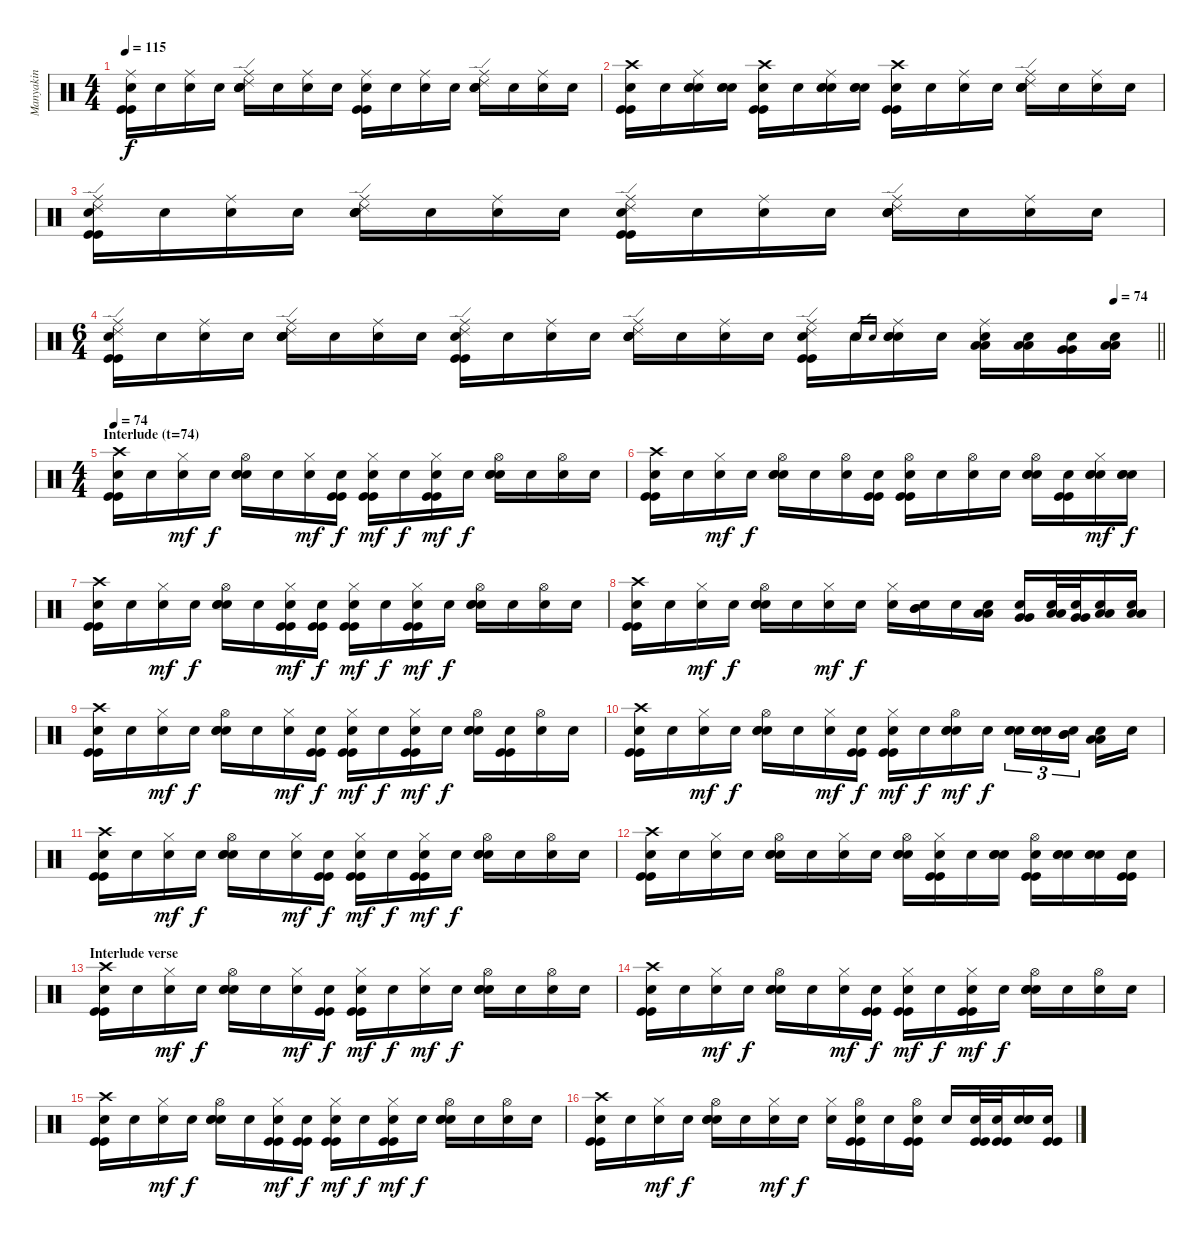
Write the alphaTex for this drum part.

\track ("Manyakin" "Manyakin") {instrument percussion}
\staff {score}
\articulation defaults
\ts (4 4)
\tempo 115
\clef neutral
\ks c
("Ride (middle)" "Kick (hit)" "Kick (hit)" "Snare (hit)"{x}).16{dy f} "Snare (hit)"{x}.16 ("Ride (middle)" "Snare (hit)"{x}).16 "Snare (hit)"{x}.16 ("Ride (middle)" "Ride (edge) 2" "Electric Snare (hit)" "Electric Snare (hit)" "Snare (hit)"{x}).16 "Snare (hit)"{x}.16 ("Ride (middle)" "Snare (hit)"{x}).16 "Snare (hit)"{x}.16 ("Ride (middle)" "Kick (hit)" "Kick (hit)" "Snare (hit)"{x}).16 "Snare (hit)"{x}.16 ("Ride (middle)" "Snare (hit)"{x}).16 "Snare (hit)"{x}.16 ("Ride (middle)" "Ride (edge) 2" "Electric Snare (hit)" "Electric Snare (hit)" "Snare (hit)"{x}).16 "Snare (hit)"{x}.16 ("Ride (middle)" "Snare (hit)"{x}).16 "Snare (hit)"{x}.16 |
("Crash high (hit)" "Kick (hit)" "Kick (hit)" "Snare (hit)"{x}).16 "Snare (hit)"{x}.16 ("Ride (middle)" "Electric Snare (hit)" "Electric Snare (hit)" "Snare (hit)"{x}).16 ("Electric Snare (hit)" "Electric Snare (hit)" "Snare (hit)"{x}).16 ("Crash high (hit)" "Kick (hit)" "Kick (hit)" "Snare (hit)"{x}).16 "Snare (hit)"{x}.16 ("Ride (middle)" "Electric Snare (hit)" "Electric Snare (hit)" "Snare (hit)"{x}).16 ("Electric Snare (hit)" "Electric Snare (hit)" "Snare (hit)"{x}).16 ("Crash high (hit)" "Kick (hit)" "Kick (hit)" "Snare (hit)"{x}).16 "Snare (hit)"{x}.16 ("Ride (middle)" "Snare (hit)"{x}).16 "Snare (hit)"{x}.16 ("Ride (middle)" "Ride (edge) 2" "Electric Snare (hit)" "Electric Snare (hit)" "Snare (hit)"{x}).16 "Snare (hit)"{x}.16 ("Ride (middle)" "Snare (hit)"{x}).16 "Snare (hit)"{x}.16 |
("Ride (middle)" "Ride (edge) 2" "Kick (hit)" "Kick (hit)" "Snare (hit)"{x}).16 "Snare (hit)"{x}.16 ("Ride (middle)" "Snare (hit)"{x}).16 "Snare (hit)"{x}.16 ("Ride (middle)" "Ride (edge) 2" "Electric Snare (hit)" "Electric Snare (hit)" "Snare (hit)"{x}).16 "Snare (hit)"{x}.16 ("Ride (middle)" "Snare (hit)"{x}).16 "Snare (hit)"{x}.16 ("Ride (middle)" "Ride (edge) 2" "Kick (hit)" "Kick (hit)" "Snare (hit)"{x}).16 "Snare (hit)"{x}.16 ("Ride (middle)" "Snare (hit)"{x}).16 "Snare (hit)"{x}.16 ("Ride (middle)" "Ride (edge) 2" "Electric Snare (hit)" "Electric Snare (hit)" "Snare (hit)"{x}).16 "Snare (hit)"{x}.16 ("Ride (middle)" "Snare (hit)"{x}).16 "Snare (hit)"{x}.16 |
\ts (6 4)
\tempo (74 0.9583333333333334)
\barLineRight lightlight
("Ride (middle)" "Ride (edge) 2" "Kick (hit)" "Kick (hit)" "Snare (hit)"{x}).16 "Snare (hit)"{x}.16 ("Ride (middle)" "Snare (hit)"{x}).16 "Snare (hit)"{x}.16 ("Ride (middle)" "Ride (edge) 2" "Electric Snare (hit)" "Electric Snare (hit)" "Snare (hit)"{x}).16 "Snare (hit)"{x}.16 ("Ride (middle)" "Snare (hit)"{x}).16 "Snare (hit)"{x}.16 ("Ride (middle)" "Ride (edge) 2" "Kick (hit)" "Kick (hit)" "Snare (hit)"{x}).16 "Snare (hit)"{x}.16 ("Ride (middle)" "Snare (hit)"{x}).16 "Snare (hit)"{x}.16 ("Ride (middle)" "Ride (edge) 2" "Electric Snare (hit)" "Electric Snare (hit)" "Snare (hit)"{x}).16 "Snare (hit)"{x}.16 ("Ride (middle)" "Snare (hit)"{x}).16 "Snare (hit)"{x}.16 ("Ride (middle)" "Ride (edge) 2" "Kick (hit)" "Kick (hit)" "Snare (hit)"{x}).16 "Snare (hit)"{x}.16 "Electric Snare (hit)".16{gr} "Electric Snare (hit)".16{gr} ("Ride (middle)" "Electric Snare (hit)" "Electric Snare (hit)" "Snare (hit)"{x}).16 "Snare (hit)"{x}.16 ("Ride (middle)" "Low Tom (hit)" "Low Tom (hit)" "Snare (hit)"{x}).16 ("Low Tom (hit)" "Low Tom (hit)" "Snare (hit)"{x}).16 ("Very Low Tom (hit)" "Very Low Tom (hit)" "Snare (hit)"{x}).16 ("Low Floor Tom (hit)" "Low Floor Tom (hit)" "Snare (hit)"{x}).16 |
\ts (4 4)
\section ("" "Interlude (t=74)")
\tempo 74
("Crash high (hit)" "Kick (hit)" "Kick (hit)" "Snare (hit)"{x}).16 "Snare (hit)"{x}.16 ("Hi-Hat (closed)" "Snare (hit)"{x}).16{dy mf} "Snare (hit)"{x}.16{dy f} ("Hi-Hat (open)" "Electric Snare (hit)" "Electric Snare (hit)" "Snare (hit)"{x}).16 "Snare (hit)"{x}.16 ("Hi-Hat (closed)" "Snare (hit)"{x}).16{dy mf} ("Kick (hit)" "Kick (hit)" "Snare (hit)"{x}).16{dy f} ("Hi-Hat (closed)" "Kick (hit)" "Kick (hit)" "Snare (hit)"{x}).16{dy mf} "Snare (hit)"{x}.16{dy f} ("Hi-Hat (closed)" "Kick (hit)" "Kick (hit)" "Snare (hit)"{x}).16{dy mf} "Snare (hit)"{x}.16{dy f} ("Hi-Hat (open)" "Electric Snare (hit)" "Electric Snare (hit)" "Snare (hit)"{x}).16 "Snare (hit)"{x}.16 ("Hi-Hat (open)" "Snare (hit)"{x}).16 "Snare (hit)"{x}.16 |
("Crash high (hit)" "Kick (hit)" "Kick (hit)" "Snare (hit)"{x}).16 "Snare (hit)"{x}.16 ("Hi-Hat (closed)" "Snare (hit)"{x}).16{dy mf} "Snare (hit)"{x}.16{dy f} ("Hi-Hat (open)" "Electric Snare (hit)" "Electric Snare (hit)" "Snare (hit)"{x}).16 "Snare (hit)"{x}.16 ("Hi-Hat (open)" "Snare (hit)"{x}).16 ("Kick (hit)" "Kick (hit)" "Snare (hit)"{x}).16 ("Hi-Hat (open)" "Kick (hit)" "Kick (hit)" "Snare (hit)"{x}).16 "Snare (hit)"{x}.16 ("Hi-Hat (open)" "Snare (hit)"{x}).16 "Snare (hit)"{x}.16 ("Hi-Hat (open)" "Electric Snare (hit)" "Electric Snare (hit)" "Snare (hit)"{x}).16 ("Kick (hit)" "Kick (hit)" "Snare (hit)"{x}).16 ("Hi-Hat (closed)" "Electric Snare (hit)" "Electric Snare (hit)" "Snare (hit)"{x}).16{dy mf} ("Electric Snare (hit)" "Electric Snare (hit)" "Snare (hit)"{x}).16{dy f} |
("Crash high (hit)" "Kick (hit)" "Kick (hit)" "Snare (hit)"{x}).16 "Snare (hit)"{x}.16 ("Hi-Hat (closed)" "Snare (hit)"{x}).16{dy mf} "Snare (hit)"{x}.16{dy f} ("Hi-Hat (open)" "Electric Snare (hit)" "Electric Snare (hit)" "Snare (hit)"{x}).16 "Snare (hit)"{x}.16 ("Hi-Hat (closed)" "Kick (hit)" "Kick (hit)" "Snare (hit)"{x}).16{dy mf} ("Kick (hit)" "Kick (hit)" "Snare (hit)"{x}).16{dy f} ("Hi-Hat (closed)" "Kick (hit)" "Kick (hit)" "Snare (hit)"{x}).16{dy mf} "Snare (hit)"{x}.16{dy f} ("Hi-Hat (closed)" "Kick (hit)" "Kick (hit)" "Snare (hit)"{x}).16{dy mf} "Snare (hit)"{x}.16{dy f} ("Hi-Hat (open)" "Electric Snare (hit)" "Electric Snare (hit)" "Snare (hit)"{x}).16 "Snare (hit)"{x}.16 ("Hi-Hat (open)" "Snare (hit)"{x}).16 "Snare (hit)"{x}.16 |
("Crash high (hit)" "Kick (hit)" "Kick (hit)" "Snare (hit)"{x}).16 "Snare (hit)"{x}.16 ("Hi-Hat (closed)" "Snare (hit)"{x}).16{dy mf} "Snare (hit)"{x}.16{dy f} ("Hi-Hat (open)" "Electric Snare (hit)" "Electric Snare (hit)" "Snare (hit)"{x}).16 "Snare (hit)"{x}.16 ("Hi-Hat (closed)" "Snare (hit)"{x}).16{dy mf} "Snare (hit)"{x}.16{dy f} ("Hi-Hat (closed)" "Snare (hit)"{x}).16 ("Mid Tom (hit)" "Mid Tom (hit)" "Snare (hit)"{x}).16 "Snare (hit)"{x}.16 ("Low Tom (hit)" "Low Tom (hit)" "Snare (hit)"{x}).16 ("Very Low Tom (hit)" "Very Low Tom (hit)" "Snare (hit)"{x}).16 ("Low Tom (hit)" "Low Tom (hit)" "Snare (hit)"{x}).32 ("Very Low Tom (hit)" "Very Low Tom (hit)" "Snare (hit)"{x}).32 ("Low Floor Tom (hit)" "Low Floor Tom (hit)" "Snare (hit)"{x}).16 ("Low Floor Tom (hit)" "Low Floor Tom (hit)" "Snare (hit)"{x}).16 |
("Crash high (hit)" "Kick (hit)" "Kick (hit)" "Snare (hit)"{x}).16 "Snare (hit)"{x}.16 ("Hi-Hat (closed)" "Snare (hit)"{x}).16{dy mf} "Snare (hit)"{x}.16{dy f} ("Hi-Hat (open)" "Electric Snare (hit)" "Electric Snare (hit)" "Snare (hit)"{x}).16 "Snare (hit)"{x}.16 ("Hi-Hat (closed)" "Snare (hit)"{x}).16{dy mf} ("Kick (hit)" "Kick (hit)" "Snare (hit)"{x}).16{dy f} ("Hi-Hat (closed)" "Kick (hit)" "Kick (hit)" "Snare (hit)"{x}).16{dy mf} "Snare (hit)"{x}.16{dy f} ("Hi-Hat (closed)" "Kick (hit)" "Kick (hit)" "Snare (hit)"{x}).16{dy mf} "Snare (hit)"{x}.16{dy f} ("Hi-Hat (open)" "Electric Snare (hit)" "Electric Snare (hit)" "Snare (hit)"{x}).16 ("Kick (hit)" "Kick (hit)" "Snare (hit)"{x}).16 ("Hi-Hat (open)" "Snare (hit)"{x}).16 "Snare (hit)"{x}.16 |
("Crash high (hit)" "Kick (hit)" "Kick (hit)" "Snare (hit)"{x}).16 "Snare (hit)"{x}.16 ("Hi-Hat (closed)" "Snare (hit)"{x}).16{dy mf} "Snare (hit)"{x}.16{dy f} ("Hi-Hat (open)" "Electric Snare (hit)" "Electric Snare (hit)" "Snare (hit)"{x}).16 "Snare (hit)"{x}.16 ("Hi-Hat (closed)" "Snare (hit)"{x}).16{dy mf} ("Kick (hit)" "Kick (hit)" "Snare (hit)"{x}).16{dy f} ("Hi-Hat (closed)" "Kick (hit)" "Kick (hit)" "Snare (hit)"{x}).16{dy mf} "Snare (hit)"{x}.16{dy f} ("Hi-Hat (open)" "Electric Snare (hit)" "Electric Snare (hit)" "Snare (hit)"{x}).16{dy mf} "Snare (hit)"{x}.16{dy f} ("Electric Snare (hit)" "Electric Snare (hit)" "Snare (hit)"{x}).16{tu (3 2)} ("Electric Snare (hit)" "Electric Snare (hit)" "Snare (hit)"{x}).16{tu (3 2)} ("Mid Tom (hit)" "Mid Tom (hit)" "Snare (hit)"{x}).16{tu (3 2)} ("Low Tom (hit)" "Low Tom (hit)" "Snare (hit)"{x}).16 "Snare (hit)"{x}.16 |
("Crash high (hit)" "Kick (hit)" "Kick (hit)" "Snare (hit)"{x}).16 "Snare (hit)"{x}.16 ("Hi-Hat (closed)" "Snare (hit)"{x}).16{dy mf} "Snare (hit)"{x}.16{dy f} ("Hi-Hat (open)" "Electric Snare (hit)" "Electric Snare (hit)" "Snare (hit)"{x}).16 "Snare (hit)"{x}.16 ("Hi-Hat (closed)" "Snare (hit)"{x}).16{dy mf} ("Kick (hit)" "Kick (hit)" "Snare (hit)"{x}).16{dy f} ("Hi-Hat (closed)" "Kick (hit)" "Kick (hit)" "Snare (hit)"{x}).16{dy mf} "Snare (hit)"{x}.16{dy f} ("Hi-Hat (closed)" "Kick (hit)" "Kick (hit)" "Snare (hit)"{x}).16{dy mf} "Snare (hit)"{x}.16{dy f} ("Hi-Hat (open)" "Electric Snare (hit)" "Electric Snare (hit)" "Snare (hit)"{x}).16 "Snare (hit)"{x}.16 ("Hi-Hat (open)" "Snare (hit)"{x}).16 "Snare (hit)"{x}.16 |
("Crash high (hit)" "Kick (hit)" "Kick (hit)" "Snare (hit)"{x}).16 "Snare (hit)"{x}.16 ("Hi-Hat (closed)" "Snare (hit)"{x}).16 "Snare (hit)"{x}.16 ("Hi-Hat (open)" "Electric Snare (hit)" "Electric Snare (hit)" "Snare (hit)"{x}).16 "Snare (hit)"{x}.16 ("Hi-Hat (closed)" "Snare (hit)"{x}).16 "Snare (hit)"{x}.16 ("Hi-Hat (open)" "Electric Snare (hit)" "Electric Snare (hit)" "Snare (hit)"{x}).16 ("Hi-Hat (closed)" "Kick (hit)" "Kick (hit)" "Snare (hit)"{x}).16 "Snare (hit)"{x}.16 ("Electric Snare (hit)" "Electric Snare (hit)" "Snare (hit)"{x}).16 ("Hi-Hat (open)" "Kick (hit)" "Kick (hit)" "Snare (hit)"{x}).16 ("Electric Snare (hit)" "Electric Snare (hit)" "Snare (hit)"{x}).16 ("Electric Snare (hit)" "Electric Snare (hit)" "Snare (hit)"{x}).16 ("Kick (hit)" "Kick (hit)" "Snare (hit)"{x}).16 |
\section ("" "Interlude verse")
("Crash high (hit)" "Kick (hit)" "Kick (hit)" "Snare (hit)"{x}).16 "Snare (hit)"{x}.16 ("Hi-Hat (closed)" "Snare (hit)"{x}).16{dy mf} "Snare (hit)"{x}.16{dy f} ("Hi-Hat (open)" "Electric Snare (hit)" "Electric Snare (hit)" "Snare (hit)"{x}).16 "Snare (hit)"{x}.16 ("Hi-Hat (closed)" "Snare (hit)"{x}).16{dy mf} ("Kick (hit)" "Kick (hit)" "Snare (hit)"{x}).16{dy f} ("Hi-Hat (closed)" "Kick (hit)" "Kick (hit)" "Snare (hit)"{x}).16{dy mf} "Snare (hit)"{x}.16{dy f} ("Hi-Hat (closed)" "Snare (hit)"{x}).16{dy mf} "Snare (hit)"{x}.16{dy f} ("Hi-Hat (open)" "Electric Snare (hit)" "Electric Snare (hit)" "Snare (hit)"{x}).16 "Snare (hit)"{x}.16 ("Hi-Hat (open)" "Snare (hit)"{x}).16 "Snare (hit)"{x}.16 |
("Crash high (hit)" "Kick (hit)" "Kick (hit)" "Snare (hit)"{x}).16 "Snare (hit)"{x}.16 ("Hi-Hat (closed)" "Snare (hit)"{x}).16{dy mf} "Snare (hit)"{x}.16{dy f} ("Hi-Hat (open)" "Electric Snare (hit)" "Electric Snare (hit)" "Snare (hit)"{x}).16 "Snare (hit)"{x}.16 ("Hi-Hat (closed)" "Snare (hit)"{x}).16{dy mf} ("Kick (hit)" "Kick (hit)" "Snare (hit)"{x}).16{dy f} ("Hi-Hat (closed)" "Kick (hit)" "Kick (hit)" "Snare (hit)"{x}).16{dy mf} "Snare (hit)"{x}.16{dy f} ("Hi-Hat (closed)" "Kick (hit)" "Kick (hit)" "Snare (hit)"{x}).16{dy mf} "Snare (hit)"{x}.16{dy f} ("Hi-Hat (open)" "Electric Snare (hit)" "Electric Snare (hit)" "Snare (hit)"{x}).16 "Snare (hit)"{x}.16 ("Hi-Hat (open)" "Snare (hit)"{x}).16 "Snare (hit)"{x}.16 |
("Crash high (hit)" "Kick (hit)" "Kick (hit)" "Snare (hit)"{x}).16 "Snare (hit)"{x}.16 ("Hi-Hat (closed)" "Snare (hit)"{x}).16{dy mf} "Snare (hit)"{x}.16{dy f} ("Hi-Hat (open)" "Electric Snare (hit)" "Electric Snare (hit)" "Snare (hit)"{x}).16 "Snare (hit)"{x}.16 ("Hi-Hat (closed)" "Kick (hit)" "Kick (hit)" "Snare (hit)"{x}).16{dy mf} ("Kick (hit)" "Kick (hit)" "Snare (hit)"{x}).16{dy f} ("Hi-Hat (closed)" "Kick (hit)" "Kick (hit)" "Snare (hit)"{x}).16{dy mf} "Snare (hit)"{x}.16{dy f} ("Hi-Hat (closed)" "Kick (hit)" "Kick (hit)" "Snare (hit)"{x}).16{dy mf} "Snare (hit)"{x}.16{dy f} ("Hi-Hat (open)" "Electric Snare (hit)" "Electric Snare (hit)" "Snare (hit)"{x}).16 "Snare (hit)"{x}.16 ("Hi-Hat (open)" "Snare (hit)"{x}).16 "Snare (hit)"{x}.16 |
("Crash high (hit)" "Kick (hit)" "Kick (hit)" "Snare (hit)"{x}).16 "Snare (hit)"{x}.16 ("Hi-Hat (closed)" "Snare (hit)"{x}).16{dy mf} "Snare (hit)"{x}.16{dy f} ("Hi-Hat (open)" "Electric Snare (hit)" "Electric Snare (hit)" "Snare (hit)"{x}).16 "Snare (hit)"{x}.16 ("Hi-Hat (closed)" "Snare (hit)"{x}).16{dy mf} "Snare (hit)"{x}.16{dy f} ("Hi-Hat (closed)" "Snare (hit)"{x}).16 ("Hi-Hat (open)" "Kick (hit)" "Kick (hit)" "Snare (hit)"{x}).16 "Snare (hit)"{x}.16 ("Hi-Hat (open)" "Kick (hit)" "Kick (hit)" "Snare (hit)"{x}).16 "Snare (hit)"{x}.16 ("Kick (hit)" "Kick (hit)" "Snare (hit)"{x}).32 ("Kick (hit)" "Kick (hit)" "Snare (hit)"{x}).32 ("Electric Snare (hit)" "Electric Snare (hit)" "Snare (hit)"{x}).16 ("Kick (hit)" "Kick (hit)" "Snare (hit)"{x}).16
